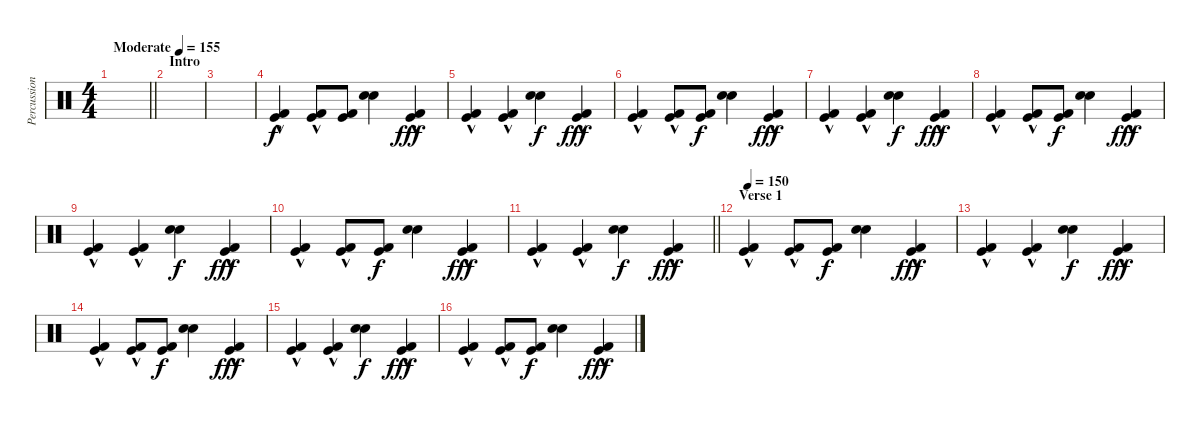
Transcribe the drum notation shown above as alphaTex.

\track ("Percussion" "Percussion") {instrument percussion}
\staff {score}
\articulation defaults
\ts (4 4)
\tempo (155 "Moderate")
\clef neutral
\barLineRight lightlight
\ks c
|
\section ("" "Intro")
|
|
("Kick (hit) 2"{hac} "Kick (hit)"{hac}).4 ("Kick (hit) 2"{hac} "Kick (hit)"{hac}).8 ("Kick (hit) 2" "Kick (hit)").8{dy f} ("Snare (hit) 2" "Electric Snare (hit)").4 ("Kick (hit) 2"{hac} "Kick (hit)"{hac}).4{dy fff} |
("Kick (hit) 2"{hac} "Kick (hit)"{hac}).4 ("Kick (hit) 2"{hac} "Kick (hit)"{hac}).4 ("Snare (hit) 2" "Electric Snare (hit)").4{dy f} ("Kick (hit) 2"{hac} "Kick (hit)"{hac}).4{dy fff} |
("Kick (hit) 2"{hac} "Kick (hit)"{hac}).4 ("Kick (hit) 2"{hac} "Kick (hit)"{hac}).8 ("Kick (hit) 2" "Kick (hit)").8{dy f} ("Snare (hit) 2" "Electric Snare (hit)").4 ("Kick (hit) 2"{hac} "Kick (hit)"{hac}).4{dy fff} |
("Kick (hit) 2"{hac} "Kick (hit)"{hac}).4 ("Kick (hit) 2"{hac} "Kick (hit)"{hac}).4 ("Snare (hit) 2" "Electric Snare (hit)").4{dy f} ("Kick (hit) 2"{hac} "Kick (hit)"{hac}).4{dy fff} |
("Kick (hit) 2"{hac} "Kick (hit)"{hac}).4 ("Kick (hit) 2"{hac} "Kick (hit)"{hac}).8 ("Kick (hit) 2" "Kick (hit)").8{dy f} ("Snare (hit) 2" "Electric Snare (hit)").4 ("Kick (hit) 2"{hac} "Kick (hit)"{hac}).4{dy fff} |
("Kick (hit) 2"{hac} "Kick (hit)"{hac}).4 ("Kick (hit) 2"{hac} "Kick (hit)"{hac}).4 ("Snare (hit) 2" "Electric Snare (hit)").4{dy f} ("Kick (hit) 2"{hac} "Kick (hit)"{hac}).4{dy fff} |
("Kick (hit) 2"{hac} "Kick (hit)"{hac}).4 ("Kick (hit) 2"{hac} "Kick (hit)"{hac}).8 ("Kick (hit) 2" "Kick (hit)").8{dy f} ("Snare (hit) 2" "Electric Snare (hit)").4 ("Kick (hit) 2"{hac} "Kick (hit)"{hac}).4{dy fff} |
\barLineRight lightlight
("Kick (hit) 2"{hac} "Kick (hit)"{hac}).4 ("Kick (hit) 2"{hac} "Kick (hit)"{hac}).4 ("Snare (hit) 2" "Electric Snare (hit)").4{dy f} ("Kick (hit) 2"{hac} "Kick (hit)"{hac}).4{dy fff} |
\section ("" "Verse 1")
\tempo 150
("Kick (hit) 2"{hac} "Kick (hit)"{hac}).4 ("Kick (hit) 2"{hac} "Kick (hit)"{hac}).8 ("Kick (hit) 2" "Kick (hit)").8{dy f} ("Snare (hit) 2" "Electric Snare (hit)").4 ("Kick (hit) 2"{hac} "Kick (hit)"{hac}).4{dy fff} |
("Kick (hit) 2"{hac} "Kick (hit)"{hac}).4 ("Kick (hit) 2"{hac} "Kick (hit)"{hac}).4 ("Snare (hit) 2" "Electric Snare (hit)").4{dy f} ("Kick (hit) 2"{hac} "Kick (hit)"{hac}).4{dy fff} |
("Kick (hit) 2"{hac} "Kick (hit)"{hac}).4 ("Kick (hit) 2"{hac} "Kick (hit)"{hac}).8 ("Kick (hit) 2" "Kick (hit)").8{dy f} ("Snare (hit) 2" "Electric Snare (hit)").4 ("Kick (hit) 2"{hac} "Kick (hit)"{hac}).4{dy fff} |
("Kick (hit) 2"{hac} "Kick (hit)"{hac}).4 ("Kick (hit) 2"{hac} "Kick (hit)"{hac}).4 ("Snare (hit) 2" "Electric Snare (hit)").4{dy f} ("Kick (hit) 2"{hac} "Kick (hit)"{hac}).4{dy fff} |
("Kick (hit) 2"{hac} "Kick (hit)"{hac}).4 ("Kick (hit) 2"{hac} "Kick (hit)"{hac}).8 ("Kick (hit) 2" "Kick (hit)").8{dy f} ("Snare (hit) 2" "Electric Snare (hit)").4 ("Kick (hit) 2"{hac} "Kick (hit)"{hac}).4{dy fff}
